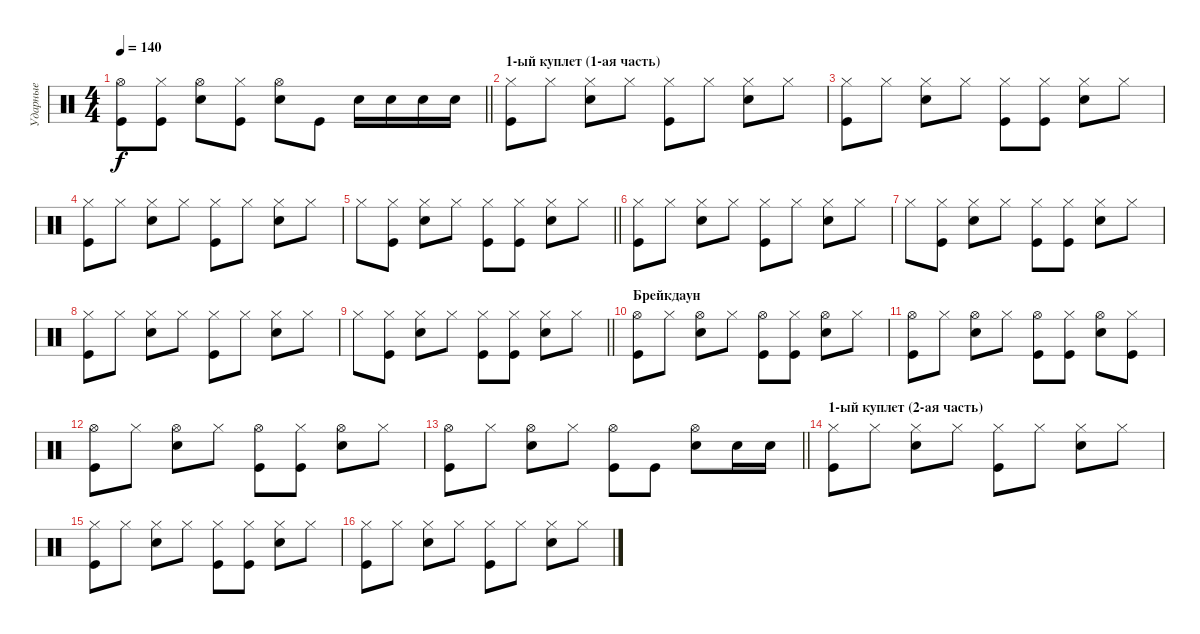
\track ("Ударные" "Ударные") {instrument percussion}
\staff {score}
\articulation defaults
\ts (4 4)
\tempo 140
\clef neutral
\barLineRight lightlight
\ks c
("Hi-Hat (open)" "Kick (hit)").8{dy f} ("Hi-Hat (closed)" "Kick (hit)").8 ("Hi-Hat (open)" "Snare (hit) 2").8 ("Hi-Hat (closed)" "Kick (hit)").8 ("Hi-Hat (open)" "Snare (hit) 2").8 "Kick (hit)".8 "Snare (hit) 2".16 "Snare (hit) 2".16 "Snare (hit) 2".16 "Snare (hit) 2".16 |
\section ("" "1-ый куплет (1-ая часть)")
("Hi-Hat (closed)" "Kick (hit)").8 "Hi-Hat (closed)".8 ("Hi-Hat (closed)" "Snare (hit) 2").8 "Hi-Hat (closed)".8 ("Hi-Hat (closed)" "Kick (hit)").8 "Hi-Hat (closed)".8 ("Hi-Hat (closed)" "Snare (hit) 2").8 "Hi-Hat (closed)".8 |
("Hi-Hat (closed)" "Kick (hit)").8 "Hi-Hat (closed)".8 ("Hi-Hat (closed)" "Snare (hit) 2").8 "Hi-Hat (closed)".8 ("Hi-Hat (closed)" "Kick (hit)").8 ("Hi-Hat (closed)" "Kick (hit)").8 ("Hi-Hat (closed)" "Snare (hit) 2").8 "Hi-Hat (closed)".8 |
("Hi-Hat (closed)" "Kick (hit)").8 "Hi-Hat (closed)".8 ("Hi-Hat (closed)" "Snare (hit) 2").8 "Hi-Hat (closed)".8 ("Hi-Hat (closed)" "Kick (hit)").8 "Hi-Hat (closed)".8 ("Hi-Hat (closed)" "Snare (hit) 2").8 "Hi-Hat (closed)".8 |
\barLineRight lightlight "Hi-Hat (closed)".8
("Hi-Hat (closed)" "Kick (hit)").8 ("Hi-Hat (closed)" "Snare (hit) 2").8 "Hi-Hat (closed)".8 ("Hi-Hat (closed)" "Kick (hit)").8 ("Hi-Hat (closed)" "Kick (hit)").8 ("Hi-Hat (closed)" "Snare (hit) 2").8 "Hi-Hat (closed)".8 |
("Hi-Hat (closed)" "Kick (hit)").8 "Hi-Hat (closed)".8 ("Hi-Hat (closed)" "Snare (hit) 2").8 "Hi-Hat (closed)".8 ("Hi-Hat (closed)" "Kick (hit)").8 "Hi-Hat (closed)".8 ("Hi-Hat (closed)" "Snare (hit) 2").8 "Hi-Hat (closed)".8 |
"Hi-Hat (closed)".8 ("Hi-Hat (closed)" "Kick (hit)").8 ("Hi-Hat (closed)" "Snare (hit) 2").8 "Hi-Hat (closed)".8 ("Hi-Hat (closed)" "Kick (hit)").8 ("Hi-Hat (closed)" "Kick (hit)").8 ("Hi-Hat (closed)" "Snare (hit) 2").8 "Hi-Hat (closed)".8 |
("Hi-Hat (closed)" "Kick (hit)").8 "Hi-Hat (closed)".8 ("Hi-Hat (closed)" "Snare (hit) 2").8 "Hi-Hat (closed)".8 ("Hi-Hat (closed)" "Kick (hit)").8 "Hi-Hat (closed)".8 ("Hi-Hat (closed)" "Snare (hit) 2").8 "Hi-Hat (closed)".8 |
\barLineRight lightlight "Hi-Hat (closed)".8
("Hi-Hat (closed)" "Kick (hit)").8 ("Hi-Hat (closed)" "Snare (hit) 2").8 "Hi-Hat (closed)".8 ("Hi-Hat (closed)" "Kick (hit)").8 ("Hi-Hat (closed)" "Kick (hit)").8 ("Hi-Hat (closed)" "Snare (hit) 2").8 "Hi-Hat (closed)".8 |
\section ("" "Брейкдаун")
("Hi-Hat (open)" "Kick (hit)").8 "Hi-Hat (closed)".8 ("Hi-Hat (open)" "Snare (hit) 2").8 "Hi-Hat (closed)".8 ("Hi-Hat (open)" "Kick (hit)").8 ("Hi-Hat (closed)" "Kick (hit)").8 ("Hi-Hat (open)" "Snare (hit) 2").8 "Hi-Hat (closed)".8 |
("Hi-Hat (open)" "Kick (hit)").8 "Hi-Hat (closed)".8 ("Hi-Hat (open)" "Snare (hit) 2").8 "Hi-Hat (closed)".8 ("Hi-Hat (open)" "Kick (hit)").8 ("Hi-Hat (closed)" "Kick (hit)").8 ("Hi-Hat (open)" "Snare (hit) 2").8 ("Hi-Hat (closed)" "Kick (hit)").8 |
("Hi-Hat (open)" "Kick (hit)").8 "Hi-Hat (closed)".8 ("Hi-Hat (open)" "Snare (hit) 2").8 "Hi-Hat (closed)".8 ("Hi-Hat (open)" "Kick (hit)").8 ("Hi-Hat (closed)" "Kick (hit)").8 ("Hi-Hat (open)" "Snare (hit) 2").8 "Hi-Hat (closed)".8 |
\barLineRight lightlight
("Hi-Hat (open)" "Kick (hit)").8 "Hi-Hat (closed)".8 ("Hi-Hat (open)" "Snare (hit) 2").8 "Hi-Hat (closed)".8 ("Hi-Hat (open)" "Kick (hit)").8 "Kick (hit)".8 ("Hi-Hat (open)" "Snare (hit) 2").8 "Snare (hit) 2".16 "Snare (hit) 2".16 |
\section ("" "1-ый куплет (2-ая часть)")
("Hi-Hat (closed)" "Kick (hit)").8 "Hi-Hat (closed)".8 ("Hi-Hat (closed)" "Snare (hit) 2").8 "Hi-Hat (closed)".8 ("Hi-Hat (closed)" "Kick (hit)").8 "Hi-Hat (closed)".8 ("Hi-Hat (closed)" "Snare (hit) 2").8 "Hi-Hat (closed)".8 |
("Hi-Hat (closed)" "Kick (hit)").8 "Hi-Hat (closed)".8 ("Hi-Hat (closed)" "Snare (hit) 2").8 "Hi-Hat (closed)".8 ("Hi-Hat (closed)" "Kick (hit)").8 ("Hi-Hat (closed)" "Kick (hit)").8 ("Hi-Hat (closed)" "Snare (hit) 2").8 "Hi-Hat (closed)".8 |
("Hi-Hat (closed)" "Kick (hit)").8 "Hi-Hat (closed)".8 ("Hi-Hat (closed)" "Snare (hit) 2").8 "Hi-Hat (closed)".8 ("Hi-Hat (closed)" "Kick (hit)").8 "Hi-Hat (closed)".8 ("Hi-Hat (closed)" "Snare (hit) 2").8 "Hi-Hat (closed)".8
